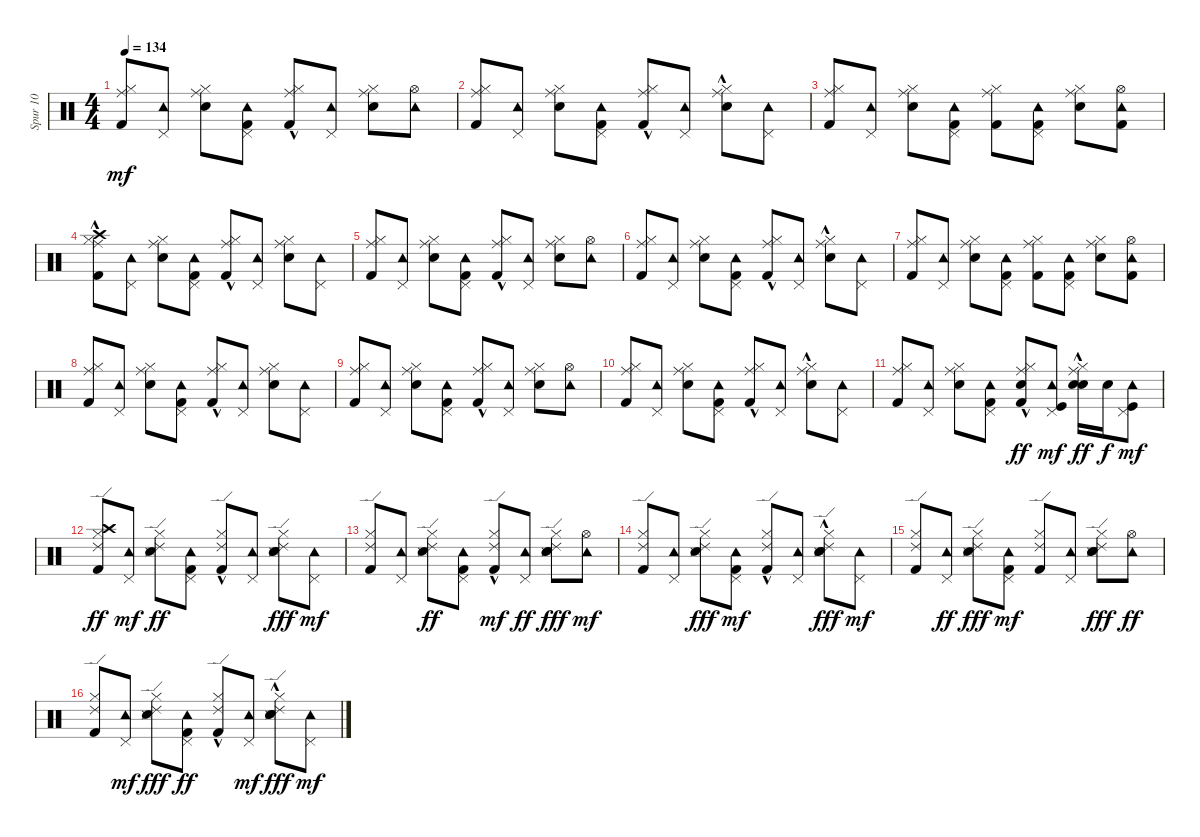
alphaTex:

\track ("Spur 10" "Spur 10") {instrument percussion}
\staff {score}
\articulation defaults
\ts (4 4)
\tempo 134
\clef neutral
\ks c
("Kick (hit) 2" "Hi-Hat (closed)" "Ride (middle)").8{dy mf} ("Pedal Hi-Hat (hit)" "Tambourine (hit)").8 ("Electric Snare (hit)" "Hi-Hat (closed)" "Ride (middle)").8 ("Kick (hit) 2" "Pedal Hi-Hat (hit)" "Tambourine (hit)").8 ("Kick (hit) 2"{hac} "Hi-Hat (closed)" "Ride (middle)").8 ("Pedal Hi-Hat (hit)" "Tambourine (hit)").8 ("Electric Snare (hit)" "Hi-Hat (closed)" "Ride (middle)").8 ("Hi-Hat (open)" "Tambourine (hit)").8 |
("Kick (hit) 2" "Hi-Hat (closed)" "Ride (middle)").8 ("Pedal Hi-Hat (hit)" "Tambourine (hit)").8 ("Electric Snare (hit)" "Hi-Hat (closed)" "Ride (middle)").8 ("Kick (hit) 2" "Pedal Hi-Hat (hit)" "Tambourine (hit)").8 ("Kick (hit) 2"{hac} "Hi-Hat (closed)" "Ride (middle)").8 ("Pedal Hi-Hat (hit)" "Tambourine (hit)").8 ("Electric Snare (hit)" "Hi-Hat (closed)"{hac} "Ride (middle)").8 ("Pedal Hi-Hat (hit)" "Tambourine (hit)").8 |
("Kick (hit) 2" "Hi-Hat (closed)" "Ride (middle)").8 ("Pedal Hi-Hat (hit)" "Tambourine (hit)").8 ("Electric Snare (hit)" "Hi-Hat (closed)" "Ride (middle)").8 ("Kick (hit) 2" "Pedal Hi-Hat (hit)" "Tambourine (hit)").8 ("Kick (hit) 2" "Hi-Hat (closed)" "Ride (middle)").8 ("Kick (hit) 2" "Pedal Hi-Hat (hit)" "Tambourine (hit)").8 ("Electric Snare (hit)" "Hi-Hat (closed)" "Ride (middle)").8 ("Kick (hit) 2" "Hi-Hat (open)" "Tambourine (hit)").8 |
("Kick (hit) 2" "Hi-Hat (closed)" "Ride (middle)" "Crash high (hit)"{hac}).8 ("Pedal Hi-Hat (hit)" "Tambourine (hit)").8 ("Electric Snare (hit)" "Hi-Hat (closed)" "Ride (middle)").8 ("Kick (hit) 2" "Pedal Hi-Hat (hit)" "Tambourine (hit)").8 ("Kick (hit) 2"{hac} "Hi-Hat (closed)" "Ride (middle)").8 ("Pedal Hi-Hat (hit)" "Tambourine (hit)").8 ("Electric Snare (hit)" "Hi-Hat (closed)" "Ride (middle)").8 ("Pedal Hi-Hat (hit)" "Tambourine (hit)").8 |
("Kick (hit) 2" "Hi-Hat (closed)" "Ride (middle)").8 ("Pedal Hi-Hat (hit)" "Tambourine (hit)").8 ("Electric Snare (hit)" "Hi-Hat (closed)" "Ride (middle)").8 ("Kick (hit) 2" "Pedal Hi-Hat (hit)" "Tambourine (hit)").8 ("Kick (hit) 2"{hac} "Hi-Hat (closed)" "Ride (middle)").8 ("Pedal Hi-Hat (hit)" "Tambourine (hit)").8 ("Electric Snare (hit)" "Hi-Hat (closed)" "Ride (middle)").8 ("Hi-Hat (open)" "Tambourine (hit)").8 |
("Kick (hit) 2" "Hi-Hat (closed)" "Ride (middle)").8 ("Pedal Hi-Hat (hit)" "Tambourine (hit)").8 ("Electric Snare (hit)" "Hi-Hat (closed)" "Ride (middle)").8 ("Kick (hit) 2" "Pedal Hi-Hat (hit)" "Tambourine (hit)").8 ("Kick (hit) 2"{hac} "Hi-Hat (closed)" "Ride (middle)").8 ("Pedal Hi-Hat (hit)" "Tambourine (hit)").8 ("Electric Snare (hit)" "Hi-Hat (closed)"{hac} "Ride (middle)").8 ("Pedal Hi-Hat (hit)" "Tambourine (hit)").8 |
("Kick (hit) 2" "Hi-Hat (closed)" "Ride (middle)").8 ("Pedal Hi-Hat (hit)" "Tambourine (hit)").8 ("Electric Snare (hit)" "Hi-Hat (closed)" "Ride (middle)").8 ("Kick (hit) 2" "Pedal Hi-Hat (hit)" "Tambourine (hit)").8 ("Kick (hit) 2" "Hi-Hat (closed)" "Ride (middle)").8 ("Kick (hit) 2" "Pedal Hi-Hat (hit)" "Tambourine (hit)").8 ("Electric Snare (hit)" "Hi-Hat (closed)" "Ride (middle)").8 ("Kick (hit) 2" "Hi-Hat (open)" "Tambourine (hit)").8 |
("Kick (hit) 2" "Hi-Hat (closed)" "Ride (middle)").8 ("Pedal Hi-Hat (hit)" "Tambourine (hit)").8 ("Electric Snare (hit)" "Hi-Hat (closed)" "Ride (middle)").8 ("Kick (hit) 2" "Pedal Hi-Hat (hit)" "Tambourine (hit)").8 ("Kick (hit) 2"{hac} "Hi-Hat (closed)" "Ride (middle)").8 ("Pedal Hi-Hat (hit)" "Tambourine (hit)").8 ("Electric Snare (hit)" "Hi-Hat (closed)" "Ride (middle)").8 ("Pedal Hi-Hat (hit)" "Tambourine (hit)").8 |
("Kick (hit) 2" "Hi-Hat (closed)" "Ride (middle)").8 ("Pedal Hi-Hat (hit)" "Tambourine (hit)").8 ("Electric Snare (hit)" "Hi-Hat (closed)" "Ride (middle)").8 ("Kick (hit) 2" "Pedal Hi-Hat (hit)" "Tambourine (hit)").8 ("Kick (hit) 2"{hac} "Hi-Hat (closed)" "Ride (middle)").8 ("Pedal Hi-Hat (hit)" "Tambourine (hit)").8 ("Electric Snare (hit)" "Hi-Hat (closed)" "Ride (middle)").8 ("Hi-Hat (open)" "Tambourine (hit)").8 |
("Kick (hit) 2" "Hi-Hat (closed)" "Ride (middle)").8 ("Pedal Hi-Hat (hit)" "Tambourine (hit)").8 ("Electric Snare (hit)" "Hi-Hat (closed)" "Ride (middle)").8 ("Kick (hit) 2" "Pedal Hi-Hat (hit)" "Tambourine (hit)").8 ("Kick (hit) 2"{hac} "Hi-Hat (closed)" "Ride (middle)").8 ("Pedal Hi-Hat (hit)" "Tambourine (hit)").8 ("Electric Snare (hit)" "Hi-Hat (closed)"{hac} "Ride (middle)").8 ("Pedal Hi-Hat (hit)" "Tambourine (hit)").8 |
("Kick (hit) 2" "Hi-Hat (closed)" "Ride (middle)").8 ("Pedal Hi-Hat (hit)" "Tambourine (hit)").8 ("Electric Snare (hit)" "Hi-Hat (closed)" "Ride (middle)").8 ("Kick (hit) 2" "Pedal Hi-Hat (hit)" "Tambourine (hit)").8 ("Kick (hit) 2"{hac} "Hi-Hat (closed)" "Ride (middle)" "Electric Snare (hit)").8{dy ff} ("Pedal Hi-Hat (hit)" "Tambourine (hit)" "Kick (hit)").8{dy mf} ("Electric Snare (hit)" "Hi-Hat (closed)"{hac} "Ride (middle)" "Electric Snare (hit)").16{dy ff} "Electric Snare (hit)".16{dy f} ("Pedal Hi-Hat (hit)" "Tambourine (hit)" "Kick (hit)").8{dy mf} |
("Kick (hit) 2" "Hi-Hat (closed)" "Ride (edge) 2" "Crash high (hit)").8{dy ff} ("Pedal Hi-Hat (hit)" "Tambourine (hit)").8{dy mf} ("Snare (side stick) 3" "Hi-Hat (closed)" "Ride (edge) 2" "Electric Snare (hit)").8{dy ff} ("Kick (hit) 2" "Pedal Hi-Hat (hit)" "Tambourine (hit)").8 ("Kick (hit) 2"{hac} "Hi-Hat (closed)" "Ride (edge) 2").8 ("Pedal Hi-Hat (hit)" "Tambourine (hit)").8 ("Snare (side stick) 3" "Snare (hit) 2" "Hi-Hat (closed)" "Ride (edge) 2" "Electric Snare (hit)").8{dy fff} ("Pedal Hi-Hat (hit)" "Tambourine (hit)").8{dy mf} |
("Kick (hit) 2" "Hi-Hat (closed)" "Ride (edge) 2").8 ("Pedal Hi-Hat (hit)" "Tambourine (hit)").8 ("Snare (side stick) 3" "Hi-Hat (closed)" "Ride (edge) 2" "Electric Snare (hit)").8{dy ff} ("Kick (hit) 2" "Pedal Hi-Hat (hit)" "Tambourine (hit)").8 ("Kick (hit) 2"{hac} "Hi-Hat (closed)" "Ride (edge) 2").8{dy mf} ("Pedal Hi-Hat (hit)" "Tambourine (hit)").8{dy ff} ("Snare (side stick) 3" "Snare (hit) 2" "Hi-Hat (closed)" "Ride (edge) 2" "Electric Snare (hit)").8{dy fff} ("Hi-Hat (open)" "Tambourine (hit)").8{dy mf} |
("Kick (hit) 2" "Hi-Hat (closed)" "Ride (edge) 2").8 ("Pedal Hi-Hat (hit)" "Tambourine (hit)").8 ("Snare (side stick) 3" "Hi-Hat (closed)" "Ride (edge) 2" "Electric Snare (hit)").8{dy fff} ("Kick (hit) 2" "Pedal Hi-Hat (hit)" "Tambourine (hit)").8{dy mf} ("Kick (hit) 2"{hac} "Hi-Hat (closed)" "Ride (edge) 2").8 ("Pedal Hi-Hat (hit)" "Tambourine (hit)").8 ("Snare (side stick) 3" "Snare (hit) 2" "Hi-Hat (closed)"{hac} "Ride (edge) 2" "Electric Snare (hit)").8{dy fff} ("Pedal Hi-Hat (hit)" "Tambourine (hit)").8{dy mf} |
("Kick (hit) 2" "Hi-Hat (closed)" "Ride (edge) 2").8 ("Pedal Hi-Hat (hit)" "Tambourine (hit)").8{dy ff} ("Snare (side stick) 3" "Hi-Hat (closed)" "Ride (edge) 2" "Electric Snare (hit)").8{dy fff} ("Kick (hit) 2" "Pedal Hi-Hat (hit)" "Tambourine (hit)").8{dy mf} ("Kick (hit) 2" "Hi-Hat (closed)" "Ride (edge) 2").8 ("Pedal Hi-Hat (hit)" "Tambourine (hit)").8 ("Snare (side stick) 3" "Snare (hit) 2" "Hi-Hat (closed)" "Ride (edge) 2" "Electric Snare (hit)").8{dy fff} ("Hi-Hat (open)" "Tambourine (hit)").8{dy ff} |
("Kick (hit) 2" "Hi-Hat (closed)" "Ride (edge) 2").8 ("Pedal Hi-Hat (hit)" "Tambourine (hit)").8{dy mf} ("Snare (side stick) 3" "Hi-Hat (closed)" "Ride (edge) 2" "Electric Snare (hit)").8{dy fff} ("Kick (hit) 2" "Pedal Hi-Hat (hit)" "Tambourine (hit)").8{dy ff} ("Kick (hit) 2"{hac} "Hi-Hat (closed)" "Ride (edge) 2").8 ("Pedal Hi-Hat (hit)" "Tambourine (hit)").8{dy mf} ("Snare (side stick) 3" "Snare (hit) 2"{hac} "Hi-Hat (closed)" "Ride (edge) 2" "Electric Snare (hit)").8{dy fff} ("Pedal Hi-Hat (hit)" "Tambourine (hit)").8{dy mf}
